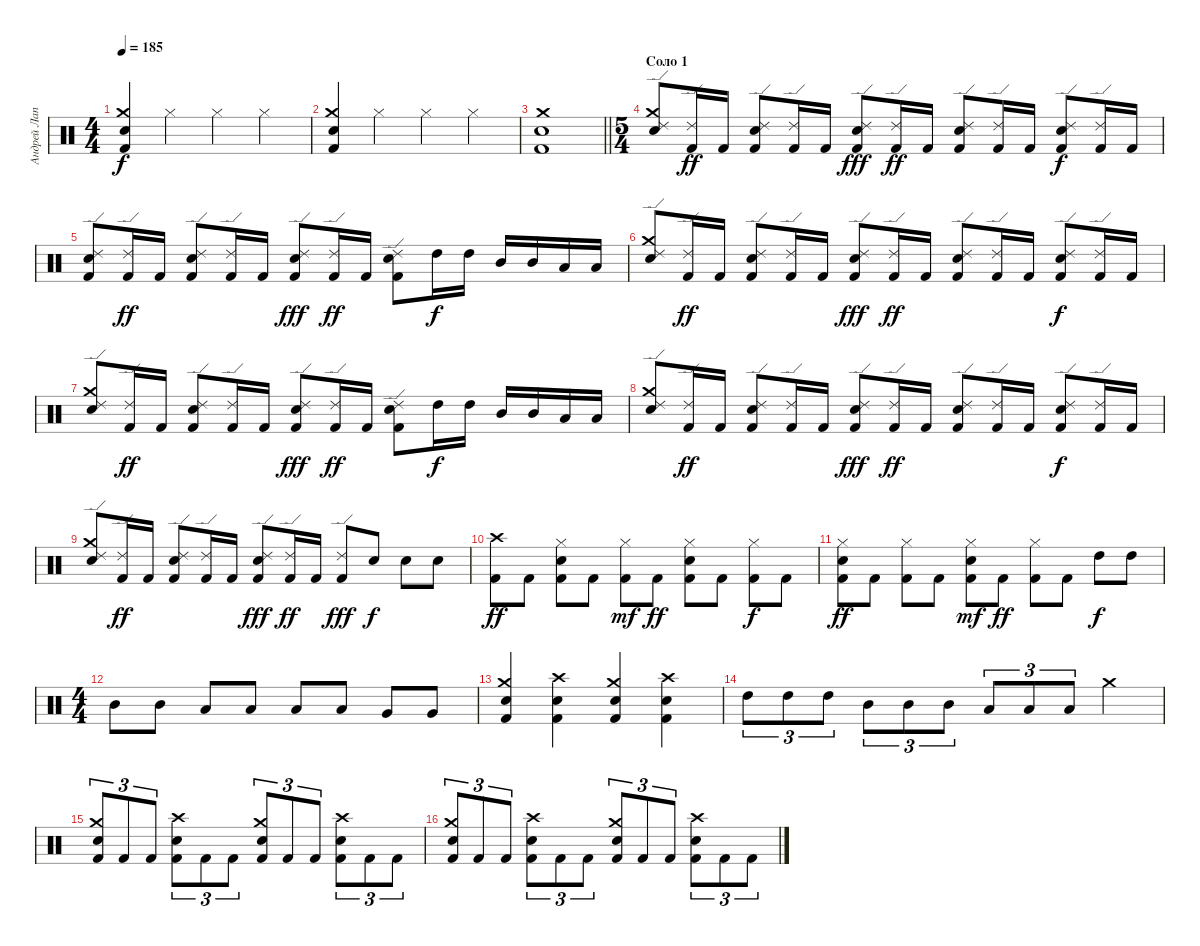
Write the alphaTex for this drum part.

\track ("Андрей Лаптев" "Андрей Лап") {instrument percussion}
\staff {score}
\articulation defaults
\ts (4 4)
\tempo 185
\clef neutral
\ks c
("Electric Snare (hit)" "Crash medium (hit)" "Kick (hit) 2").4{dy f} "Hi-Hat (closed)".4 "Hi-Hat (closed)".4 "Hi-Hat (closed)".4 |
("Electric Snare (hit)" "Crash medium (hit)" "Kick (hit) 2").4 "Hi-Hat (closed)".4 "Hi-Hat (closed)".4 "Hi-Hat (closed)".4 |
\barLineRight lightlight
("Electric Snare (hit)" "Crash medium (hit)" "Kick (hit) 2").1 |
\ts (5 4)
\section ("" "Соло 1")
("Ride (edge) 2" "Crash medium (hit)" "Electric Snare (hit)").8 ("Kick (hit) 2" "Ride (edge) 2").16{dy ff} "Kick (hit) 2".16 ("Kick (hit) 2" "Electric Snare (hit)" "Ride (edge) 2").8 ("Kick (hit) 2" "Ride (edge) 2").16 "Kick (hit) 2".16 ("Kick (hit) 2" "Ride (edge) 2" "Electric Snare (hit)").8{dy fff} ("Kick (hit) 2" "Ride (edge) 2").16{dy ff} "Kick (hit) 2".16 ("Ride (edge) 2" "Electric Snare (hit)" "Kick (hit) 2").8 ("Kick (hit) 2" "Ride (edge) 2").16 "Kick (hit) 2".16 ("Ride (edge) 2" "Electric Snare (hit)" "Kick (hit) 2").8{dy f} ("Kick (hit) 2" "Ride (edge) 2").16 "Kick (hit) 2".16 |
("Ride (edge) 2" "Kick (hit) 2" "Electric Snare (hit)").8 ("Kick (hit) 2" "Ride (edge) 2").16{dy ff} "Kick (hit) 2".16 ("Kick (hit) 2" "Electric Snare (hit)" "Ride (edge) 2").8 ("Kick (hit) 2" "Ride (edge) 2").16 "Kick (hit) 2".16 ("Kick (hit) 2" "Ride (edge) 2" "Electric Snare (hit)").8{dy fff} ("Kick (hit) 2" "Ride (edge) 2").16{dy ff} "Kick (hit) 2".16 ("Ride (edge) 2" "Electric Snare (hit)" "Kick (hit) 2").8 "High Tom (hit)".16{dy f} "High Tom (hit)".16 "Mid Tom (hit)".16 "Mid Tom (hit)".16 "Low Tom (hit)".16 "Low Tom (hit)".16 |
("Ride (edge) 2" "Crash medium (hit)" "Electric Snare (hit)").8 ("Kick (hit) 2" "Ride (edge) 2").16{dy ff} "Kick (hit) 2".16 ("Kick (hit) 2" "Electric Snare (hit)" "Ride (edge) 2").8 ("Kick (hit) 2" "Ride (edge) 2").16 "Kick (hit) 2".16 ("Kick (hit) 2" "Ride (edge) 2" "Electric Snare (hit)").8{dy fff} ("Kick (hit) 2" "Ride (edge) 2").16{dy ff} "Kick (hit) 2".16 ("Ride (edge) 2" "Electric Snare (hit)" "Kick (hit) 2").8 ("Kick (hit) 2" "Ride (edge) 2").16 "Kick (hit) 2".16 ("Ride (edge) 2" "Electric Snare (hit)" "Kick (hit) 2").8{dy f} ("Kick (hit) 2" "Ride (edge) 2").16 "Kick (hit) 2".16 |
("Ride (edge) 2" "Crash medium (hit)" "Electric Snare (hit)").8 ("Kick (hit) 2" "Ride (edge) 2").16{dy ff} "Kick (hit) 2".16 ("Kick (hit) 2" "Electric Snare (hit)" "Ride (edge) 2").8 ("Kick (hit) 2" "Ride (edge) 2").16 "Kick (hit) 2".16 ("Kick (hit) 2" "Ride (edge) 2" "Electric Snare (hit)").8{dy fff} ("Kick (hit) 2" "Ride (edge) 2").16{dy ff} "Kick (hit) 2".16 ("Ride (edge) 2" "Electric Snare (hit)" "Kick (hit) 2").8 "High Tom (hit)".16{dy f} "High Tom (hit)".16 "Mid Tom (hit)".16 "Mid Tom (hit)".16 "Low Tom (hit)".16 "Low Tom (hit)".16 |
("Ride (edge) 2" "Crash medium (hit)" "Electric Snare (hit)").8 ("Kick (hit) 2" "Ride (edge) 2").16{dy ff} "Kick (hit) 2".16 ("Kick (hit) 2" "Electric Snare (hit)" "Ride (edge) 2").8 ("Kick (hit) 2" "Ride (edge) 2").16 "Kick (hit) 2".16 ("Kick (hit) 2" "Ride (edge) 2" "Electric Snare (hit)").8{dy fff} ("Kick (hit) 2" "Ride (edge) 2").16{dy ff} "Kick (hit) 2".16 ("Ride (edge) 2" "Electric Snare (hit)" "Kick (hit) 2").8 ("Kick (hit) 2" "Ride (edge) 2").16 "Kick (hit) 2".16 ("Ride (edge) 2" "Electric Snare (hit)" "Kick (hit) 2").8{dy f} ("Kick (hit) 2" "Ride (edge) 2").16 "Kick (hit) 2".16 |
("Ride (edge) 2" "Crash medium (hit)" "Electric Snare (hit)").8 ("Kick (hit) 2" "Ride (edge) 2").16{dy ff} "Kick (hit) 2".16 ("Kick (hit) 2" "Electric Snare (hit)" "Ride (edge) 2").8 ("Kick (hit) 2" "Ride (edge) 2").16 "Kick (hit) 2".16 ("Kick (hit) 2" "Ride (edge) 2" "Electric Snare (hit)").8{dy fff} ("Kick (hit) 2" "Ride (edge) 2").16{dy ff} "Kick (hit) 2".16 ("Ride (edge) 2" "Kick (hit) 2").8{dy fff} "Electric Snare (hit)".8{dy f} "Electric Snare (hit)".8 "Electric Snare (hit)".8 |
("Crash high (hit)" "Kick (hit) 2").8{dy ff} "Kick (hit) 2".8 ("Hi-Hat (closed)" "Electric Snare (hit)" "Kick (hit) 2").8 "Kick (hit) 2".8 ("Kick (hit) 2" "Hi-Hat (closed)").8{dy mf} "Kick (hit) 2".8{dy ff} ("Electric Snare (hit)" "Hi-Hat (closed)" "Kick (hit) 2").8 "Kick (hit) 2".8 ("Kick (hit) 2" "Hi-Hat (closed)").8{dy f} "Kick (hit) 2".8 |
("Hi-Hat (closed)" "Kick (hit) 2" "Electric Snare (hit)").8{dy ff} "Kick (hit) 2".8 ("Hi-Hat (closed)" "Kick (hit) 2").8 "Kick (hit) 2".8 ("Kick (hit) 2" "Hi-Hat (closed)" "Electric Snare (hit)").8{dy mf} "Kick (hit) 2".8{dy ff} ("Hi-Hat (closed)" "Kick (hit) 2").8 "Kick (hit) 2".8 "High Tom (hit)".8{dy f} "High Tom (hit)".8 |
\ts (4 4)
"Mid Tom (hit)".8 "Mid Tom (hit)".8 "Low Tom (hit)".8 "Low Tom (hit)".8 "Low Floor Tom (hit)".8 "Low Floor Tom (hit)".8 "Very Low Tom (hit)".8 "Very Low Tom (hit)".8 |
("Crash medium (hit)" "Electric Snare (hit)" "Kick (hit) 2").4 ("Crash high (hit)" "Electric Snare (hit)" "Kick (hit) 2").4 ("Crash medium (hit)" "Electric Snare (hit)" "Kick (hit) 2").4 ("Crash high (hit)" "Electric Snare (hit)" "Kick (hit) 2").4 |
"High Tom (hit)".8{tu (3 2)} "High Tom (hit)".8{tu (3 2)} "High Tom (hit)".8{tu (3 2)} "Mid Tom (hit)".8{tu (3 2)} "Mid Tom (hit)".8{tu (3 2)} "Mid Tom (hit)".8{tu (3 2)} "Low Tom (hit)".8{tu (3 2)} "Low Tom (hit)".8{tu (3 2)} "Low Tom (hit)".8{tu (3 2)} "Crash medium (hit)".4 |
("Crash medium (hit)" "Electric Snare (hit)" "Kick (hit) 2").8{tu (3 2)} "Kick (hit) 2".8{tu (3 2)} "Kick (hit) 2".8{tu (3 2)} ("Crash high (hit)" "Electric Snare (hit)" "Kick (hit) 2").8{tu (3 2)} "Kick (hit) 2".8{tu (3 2)} "Kick (hit) 2".8{tu (3 2)} ("Crash medium (hit)" "Electric Snare (hit)" "Kick (hit) 2").8{tu (3 2)} "Kick (hit) 2".8{tu (3 2)} "Kick (hit) 2".8{tu (3 2)} ("Crash high (hit)" "Electric Snare (hit)" "Kick (hit) 2").8{tu (3 2)} "Kick (hit) 2".8{tu (3 2)} "Kick (hit) 2".8{tu (3 2)} |
("Crash medium (hit)" "Electric Snare (hit)" "Kick (hit) 2").8{tu (3 2)} "Kick (hit) 2".8{tu (3 2)} "Kick (hit) 2".8{tu (3 2)} ("Crash high (hit)" "Electric Snare (hit)" "Kick (hit) 2").8{tu (3 2)} "Kick (hit) 2".8{tu (3 2)} "Kick (hit) 2".8{tu (3 2)} ("Crash medium (hit)" "Electric Snare (hit)" "Kick (hit) 2").8{tu (3 2)} "Kick (hit) 2".8{tu (3 2)} "Kick (hit) 2".8{tu (3 2)} ("Crash high (hit)" "Electric Snare (hit)" "Kick (hit) 2").8{tu (3 2)} "Kick (hit) 2".8{tu (3 2)} "Kick (hit) 2".8{tu (3 2)}
